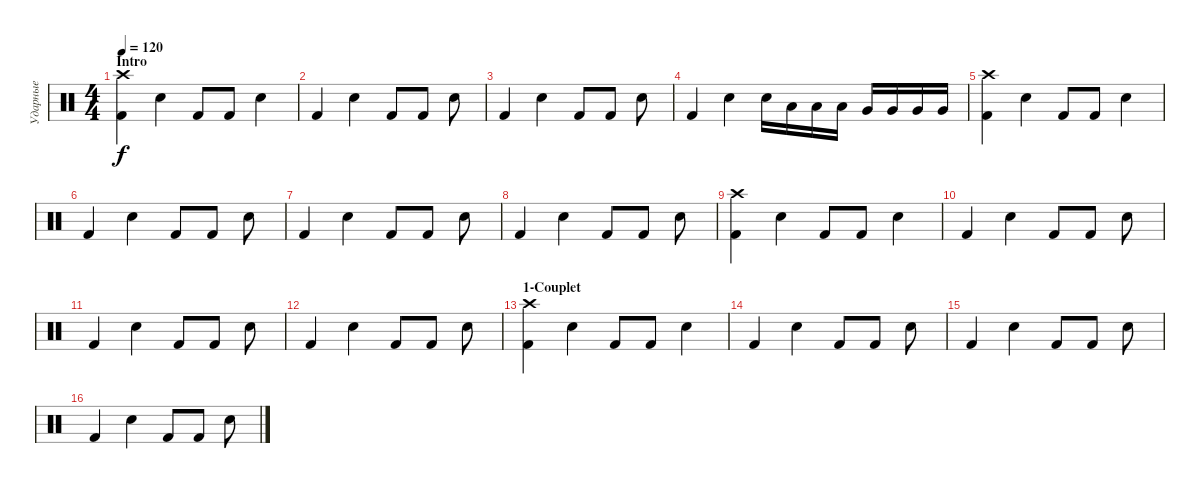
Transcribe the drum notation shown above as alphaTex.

\track ("Ударные" "Ударные") {instrument percussion}
\staff {score}
\articulation defaults
\ts (4 4)
\section ("" "Intro")
\tempo 120
\tempo 100
\tempo 120
\clef neutral
\ks c
("Kick (hit) 2" "Crash high (hit)").4{dy f} "Electric Snare (hit)".4 "Kick (hit) 2".8 "Kick (hit) 2".8 "Electric Snare (hit)".4 |
"Kick (hit) 2".4 "Electric Snare (hit)".4 "Kick (hit) 2".8 "Kick (hit) 2".8 "Electric Snare (hit)".8 |
"Kick (hit) 2".4 "Electric Snare (hit)".4 "Kick (hit) 2".8 "Kick (hit) 2".8 "Electric Snare (hit)".8 |
"Kick (hit) 2".4 "Electric Snare (hit)".4 "Electric Snare (hit)".16 "Low Tom (hit)".16 "Low Tom (hit)".16 "Low Tom (hit)".16 "Very Low Tom (hit)".16 "Very Low Tom (hit)".16 "Very Low Tom (hit)".16 "Very Low Tom (hit)".16 |
("Kick (hit) 2" "Crash high (hit)").4 "Electric Snare (hit)".4 "Kick (hit) 2".8 "Kick (hit) 2".8 "Electric Snare (hit)".4 |
"Kick (hit) 2".4 "Electric Snare (hit)".4 "Kick (hit) 2".8 "Kick (hit) 2".8 "Electric Snare (hit)".8 |
"Kick (hit) 2".4 "Electric Snare (hit)".4 "Kick (hit) 2".8 "Kick (hit) 2".8 "Electric Snare (hit)".8 |
"Kick (hit) 2".4 "Electric Snare (hit)".4 "Kick (hit) 2".8 "Kick (hit) 2".8 "Electric Snare (hit)".8 |
("Kick (hit) 2" "Crash high (hit)").4 "Electric Snare (hit)".4 "Kick (hit) 2".8 "Kick (hit) 2".8 "Electric Snare (hit)".4 |
"Kick (hit) 2".4 "Electric Snare (hit)".4 "Kick (hit) 2".8 "Kick (hit) 2".8 "Electric Snare (hit)".8 |
"Kick (hit) 2".4 "Electric Snare (hit)".4 "Kick (hit) 2".8 "Kick (hit) 2".8 "Electric Snare (hit)".8 |
"Kick (hit) 2".4 "Electric Snare (hit)".4 "Kick (hit) 2".8 "Kick (hit) 2".8 "Electric Snare (hit)".8 |
\section ("" "1-Couplet")
("Kick (hit) 2" "Crash high (hit)").4 "Electric Snare (hit)".4 "Kick (hit) 2".8 "Kick (hit) 2".8 "Electric Snare (hit)".4 |
"Kick (hit) 2".4 "Electric Snare (hit)".4 "Kick (hit) 2".8 "Kick (hit) 2".8 "Electric Snare (hit)".8 |
"Kick (hit) 2".4 "Electric Snare (hit)".4 "Kick (hit) 2".8 "Kick (hit) 2".8 "Electric Snare (hit)".8 |
"Kick (hit) 2".4 "Electric Snare (hit)".4 "Kick (hit) 2".8 "Kick (hit) 2".8 "Electric Snare (hit)".8
